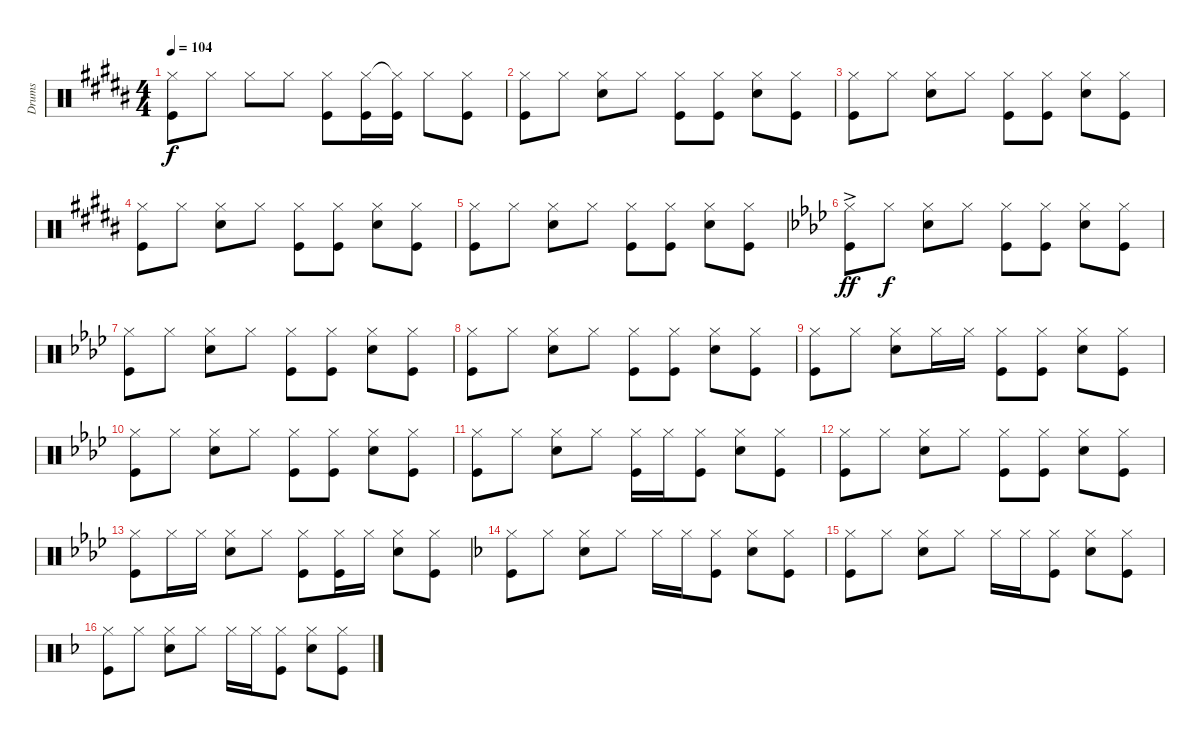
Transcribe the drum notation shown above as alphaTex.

\track ("Drums" "Drums") {instrument percussion}
\staff {score}
\articulation defaults
\ts (4 4)
\tempo 104
\clef neutral
\ks b
("Hi-Hat (closed)" "Kick (hit)").8{dy f} "Hi-Hat (closed)".8 "Hi-Hat (closed)".8 "Hi-Hat (closed)".8 ("Hi-Hat (closed)" "Kick (hit)").8 ("Hi-Hat (closed)" "Kick (hit)").16 ("Hi-Hat (closed)"{t} "Kick (hit)").16 "Hi-Hat (closed)".8 ("Hi-Hat (closed)" "Kick (hit)").8 |
("Hi-Hat (closed)" "Kick (hit)").8 "Hi-Hat (closed)".8 ("Hi-Hat (closed)" "Snare (hit) 2").8 "Hi-Hat (closed)".8 ("Hi-Hat (closed)" "Kick (hit)").8 ("Hi-Hat (closed)" "Kick (hit)").8 ("Hi-Hat (closed)" "Snare (hit) 2").8 ("Hi-Hat (closed)" "Kick (hit)").8 |
("Hi-Hat (closed)" "Kick (hit)").8 "Hi-Hat (closed)".8 ("Hi-Hat (closed)" "Snare (hit) 2").8 "Hi-Hat (closed)".8 ("Hi-Hat (closed)" "Kick (hit)").8 ("Hi-Hat (closed)" "Kick (hit)").8 ("Hi-Hat (closed)" "Snare (hit) 2").8 ("Hi-Hat (closed)" "Kick (hit)").8 |
("Hi-Hat (closed)" "Kick (hit)").8 "Hi-Hat (closed)".8 ("Hi-Hat (closed)" "Snare (hit) 2").8 "Hi-Hat (closed)".8 ("Hi-Hat (closed)" "Kick (hit)").8 ("Hi-Hat (closed)" "Kick (hit)").8 ("Hi-Hat (closed)" "Snare (hit) 2").8 ("Hi-Hat (closed)" "Kick (hit)").8 |
("Hi-Hat (closed)" "Kick (hit)").8 "Hi-Hat (closed)".8 ("Hi-Hat (closed)" "Snare (hit) 2").8 "Hi-Hat (closed)".8 ("Hi-Hat (closed)" "Kick (hit)").8 ("Hi-Hat (closed)" "Kick (hit)").8 ("Hi-Hat (closed)" "Snare (hit) 2").8 ("Hi-Hat (closed)" "Kick (hit)").8 |
\ks ab
("Hi-Hat (closed)"{ac} "Kick (hit)").8{dy ff} "Hi-Hat (closed)".8{dy f} ("Hi-Hat (closed)" "Snare (hit) 2").8 "Hi-Hat (closed)".8 ("Hi-Hat (closed)" "Kick (hit)").8 ("Hi-Hat (closed)" "Kick (hit)").8 ("Hi-Hat (closed)" "Snare (hit) 2").8 ("Hi-Hat (closed)" "Kick (hit)").8 |
("Hi-Hat (closed)" "Kick (hit)").8 "Hi-Hat (closed)".8 ("Hi-Hat (closed)" "Snare (hit) 2").8 "Hi-Hat (closed)".8 ("Hi-Hat (closed)" "Kick (hit)").8 ("Hi-Hat (closed)" "Kick (hit)").8 ("Hi-Hat (closed)" "Snare (hit) 2").8 ("Hi-Hat (closed)" "Kick (hit)").8 |
("Hi-Hat (closed)" "Kick (hit)").8 "Hi-Hat (closed)".8 ("Hi-Hat (closed)" "Snare (hit) 2").8 "Hi-Hat (closed)".8 ("Hi-Hat (closed)" "Kick (hit)").8 ("Hi-Hat (closed)" "Kick (hit)").8 ("Hi-Hat (closed)" "Snare (hit) 2").8 ("Hi-Hat (closed)" "Kick (hit)").8 |
("Hi-Hat (closed)" "Kick (hit)").8 "Hi-Hat (closed)".8 ("Hi-Hat (closed)" "Snare (hit) 2").8 "Hi-Hat (closed)".16 "Hi-Hat (closed)".16 ("Hi-Hat (closed)" "Kick (hit)").8 ("Hi-Hat (closed)" "Kick (hit)").8 ("Hi-Hat (closed)" "Snare (hit) 2").8 ("Hi-Hat (closed)" "Kick (hit)").8 |
("Hi-Hat (closed)" "Kick (hit)").8 "Hi-Hat (closed)".8 ("Hi-Hat (closed)" "Snare (hit) 2").8 "Hi-Hat (closed)".8 ("Hi-Hat (closed)" "Kick (hit)").8 ("Hi-Hat (closed)" "Kick (hit)").8 ("Hi-Hat (closed)" "Snare (hit) 2").8 ("Hi-Hat (closed)" "Kick (hit)").8 |
("Hi-Hat (closed)" "Kick (hit)").8 "Hi-Hat (closed)".8 ("Hi-Hat (closed)" "Snare (hit) 2").8 "Hi-Hat (closed)".8 ("Hi-Hat (closed)" "Kick (hit)").16 "Hi-Hat (closed)".16 ("Hi-Hat (closed)" "Kick (hit)").8 ("Hi-Hat (closed)" "Snare (hit) 2").8 ("Hi-Hat (closed)" "Kick (hit)").8 |
("Hi-Hat (closed)" "Kick (hit)").8 "Hi-Hat (closed)".8 ("Hi-Hat (closed)" "Snare (hit) 2").8 "Hi-Hat (closed)".8 ("Hi-Hat (closed)" "Kick (hit)").8 ("Hi-Hat (closed)" "Kick (hit)").8 ("Hi-Hat (closed)" "Snare (hit) 2").8 ("Hi-Hat (closed)" "Kick (hit)").8 |
("Hi-Hat (closed)" "Kick (hit)").8 "Hi-Hat (closed)".16 "Hi-Hat (closed)".16 ("Hi-Hat (closed)" "Snare (hit) 2").8 "Hi-Hat (closed)".8 ("Hi-Hat (closed)" "Kick (hit)").8 ("Hi-Hat (closed)" "Kick (hit)").16 "Hi-Hat (closed)".16 ("Hi-Hat (closed)" "Snare (hit) 2").8 ("Hi-Hat (closed)" "Kick (hit)").8 |
\ks f
("Hi-Hat (closed)" "Kick (hit)").8 "Hi-Hat (closed)".8 ("Hi-Hat (closed)" "Snare (hit) 2").8 "Hi-Hat (closed)".8 "Hi-Hat (closed)".16 "Hi-Hat (closed)".16 ("Hi-Hat (closed)" "Kick (hit)").8 ("Hi-Hat (closed)" "Snare (hit) 2").8 ("Hi-Hat (closed)" "Kick (hit)").8 |
("Hi-Hat (closed)" "Kick (hit)").8 "Hi-Hat (closed)".8 ("Hi-Hat (closed)" "Snare (hit) 2").8 "Hi-Hat (closed)".8 "Hi-Hat (closed)".16 "Hi-Hat (closed)".16 ("Hi-Hat (closed)" "Kick (hit)").8 ("Hi-Hat (closed)" "Snare (hit) 2").8 ("Hi-Hat (closed)" "Kick (hit)").8 |
("Hi-Hat (closed)" "Kick (hit)").8 "Hi-Hat (closed)".8 ("Hi-Hat (closed)" "Snare (hit) 2").8 "Hi-Hat (closed)".8 "Hi-Hat (closed)".16 "Hi-Hat (closed)".16 ("Hi-Hat (closed)" "Kick (hit)").8 ("Hi-Hat (closed)" "Snare (hit) 2").8 ("Hi-Hat (closed)" "Kick (hit)").8
